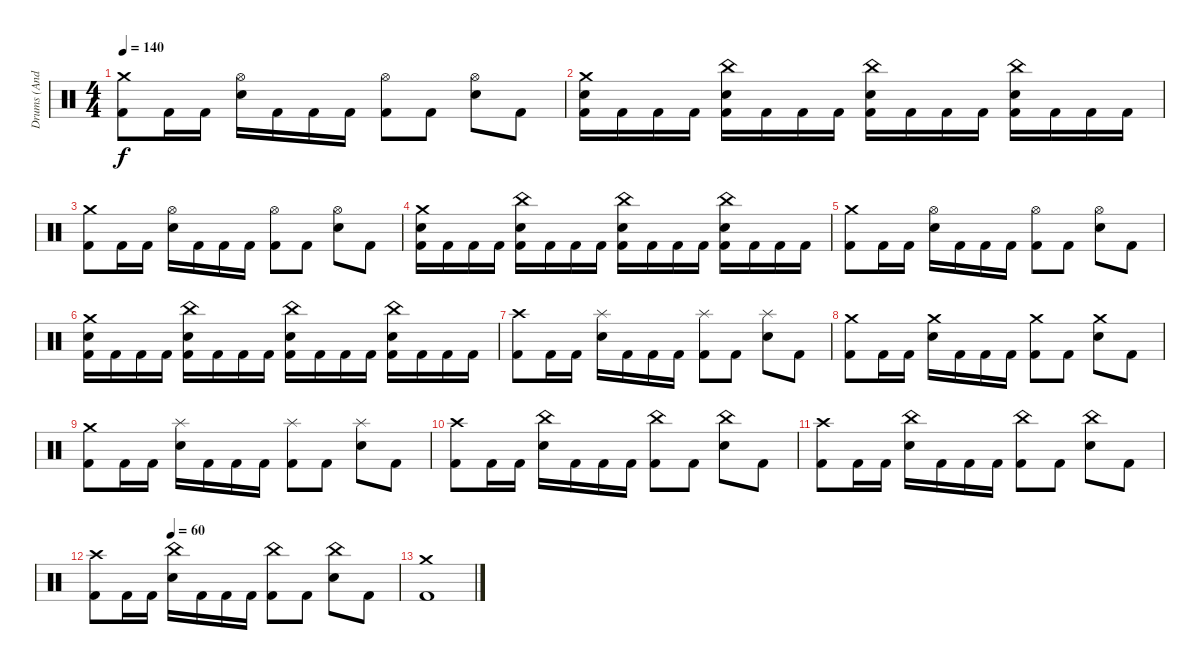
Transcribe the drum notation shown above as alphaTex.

\track ("Drums (Andy C)" "Drums (And") {instrument percussion}
\staff {score}
\articulation defaults
\ts (4 4)
\tempo 140
\clef neutral
\ks c
("Crash medium (hit)" "Kick (hit) 2").8{dy f} "Kick (hit) 2".16 "Kick (hit) 2".16 ("Hi-Hat (open)" "Electric Snare (hit)").16 "Kick (hit) 2".16 "Kick (hit) 2".16 "Kick (hit) 2".16 ("Hi-Hat (open)" "Kick (hit) 2").8 "Kick (hit) 2".8 ("Hi-Hat (open)" "Electric Snare (hit)").8 "Kick (hit) 2".8 |
("Crash medium (hit)" "Kick (hit) 2" "Electric Snare (hit)").16 "Kick (hit) 2".16 "Kick (hit) 2".16 "Kick (hit) 2".16 ("China (hit)" "Kick (hit) 2" "Electric Snare (hit)").16 "Kick (hit) 2".16 "Kick (hit) 2".16 "Kick (hit) 2".16 ("China (hit)" "Kick (hit) 2" "Electric Snare (hit)").16 "Kick (hit) 2".16 "Kick (hit) 2".16 "Kick (hit) 2".16 ("China (hit)" "Kick (hit) 2" "Electric Snare (hit)").16 "Kick (hit) 2".16 "Kick (hit) 2".16 "Kick (hit) 2".16 |
("Crash medium (hit)" "Kick (hit) 2").8 "Kick (hit) 2".16 "Kick (hit) 2".16 ("Hi-Hat (open)" "Electric Snare (hit)").16 "Kick (hit) 2".16 "Kick (hit) 2".16 "Kick (hit) 2".16 ("Hi-Hat (open)" "Kick (hit) 2").8 "Kick (hit) 2".8 ("Hi-Hat (open)" "Electric Snare (hit)").8 "Kick (hit) 2".8 |
("Crash medium (hit)" "Kick (hit) 2" "Electric Snare (hit)").16 "Kick (hit) 2".16 "Kick (hit) 2".16 "Kick (hit) 2".16 ("China (hit)" "Kick (hit) 2" "Electric Snare (hit)").16 "Kick (hit) 2".16 "Kick (hit) 2".16 "Kick (hit) 2".16 ("China (hit)" "Kick (hit) 2" "Electric Snare (hit)").16 "Kick (hit) 2".16 "Kick (hit) 2".16 "Kick (hit) 2".16 ("China (hit)" "Kick (hit) 2" "Electric Snare (hit)").16 "Kick (hit) 2".16 "Kick (hit) 2".16 "Kick (hit) 2".16 |
("Crash medium (hit)" "Kick (hit) 2").8 "Kick (hit) 2".16 "Kick (hit) 2".16 ("Hi-Hat (open)" "Electric Snare (hit)").16 "Kick (hit) 2".16 "Kick (hit) 2".16 "Kick (hit) 2".16 ("Hi-Hat (open)" "Kick (hit) 2").8 "Kick (hit) 2".8 ("Hi-Hat (open)" "Electric Snare (hit)").8 "Kick (hit) 2".8 |
("Crash medium (hit)" "Kick (hit) 2" "Electric Snare (hit)").16 "Kick (hit) 2".16 "Kick (hit) 2".16 "Kick (hit) 2".16 ("China (hit)" "Kick (hit) 2" "Electric Snare (hit)").16 "Kick (hit) 2".16 "Kick (hit) 2".16 "Kick (hit) 2".16 ("China (hit)" "Kick (hit) 2" "Electric Snare (hit)").16 "Kick (hit) 2".16 "Kick (hit) 2".16 "Kick (hit) 2".16 ("China (hit)" "Kick (hit) 2" "Electric Snare (hit)").16 "Kick (hit) 2".16 "Kick (hit) 2".16 "Kick (hit) 2".16 |
("Crash high (hit)" "Kick (hit) 2").8 "Kick (hit) 2".16 "Kick (hit) 2".16 ("Splash (hit)" "Electric Snare (hit)").16 "Kick (hit) 2".16 "Kick (hit) 2".16 "Kick (hit) 2".16 ("Splash (hit)" "Kick (hit) 2").8 "Kick (hit) 2".8 ("Splash (hit)" "Electric Snare (hit)").8 "Kick (hit) 2".8 |
("Crash medium (hit)" "Kick (hit) 2").8 "Kick (hit) 2".16 "Kick (hit) 2".16 ("Crash medium (hit)" "Electric Snare (hit)").16 "Kick (hit) 2".16 "Kick (hit) 2".16 "Kick (hit) 2".16 ("Crash medium (hit)" "Kick (hit) 2").8 "Kick (hit) 2".8 ("Crash medium (hit)" "Electric Snare (hit)").8 "Kick (hit) 2".8 |
("Crash medium (hit)" "Kick (hit) 2").8 "Kick (hit) 2".16 "Kick (hit) 2".16 ("Splash (hit)" "Electric Snare (hit)").16 "Kick (hit) 2".16 "Kick (hit) 2".16 "Kick (hit) 2".16 ("Splash (hit)" "Kick (hit) 2").8 "Kick (hit) 2".8 ("Splash (hit)" "Electric Snare (hit)").8 "Kick (hit) 2".8 |
("Crash high (hit)" "Kick (hit) 2").8 "Kick (hit) 2".16 "Kick (hit) 2".16 ("China (hit)" "Electric Snare (hit)").16 "Kick (hit) 2".16 "Kick (hit) 2".16 "Kick (hit) 2".16 ("China (hit)" "Kick (hit) 2").8 "Kick (hit) 2".8 ("China (hit)" "Electric Snare (hit)").8 "Kick (hit) 2".8 |
("Crash high (hit)" "Kick (hit) 2").8 "Kick (hit) 2".16 "Kick (hit) 2".16 ("China (hit)" "Electric Snare (hit)").16 "Kick (hit) 2".16 "Kick (hit) 2".16 "Kick (hit) 2".16 ("China (hit)" "Kick (hit) 2").8 "Kick (hit) 2".8 ("China (hit)" "Electric Snare (hit)").8 "Kick (hit) 2".8 |
\tempo (60 0.25)
("Crash high (hit)" "Kick (hit) 2").8 "Kick (hit) 2".16 "Kick (hit) 2".16 ("China (hit)" "Electric Snare (hit)").16 "Kick (hit) 2".16 "Kick (hit) 2".16 "Kick (hit) 2".16 ("China (hit)" "Kick (hit) 2").8 "Kick (hit) 2".8 ("China (hit)" "Electric Snare (hit)").8 "Kick (hit) 2".8 |
("Crash medium (hit)" "Kick (hit) 2").1
